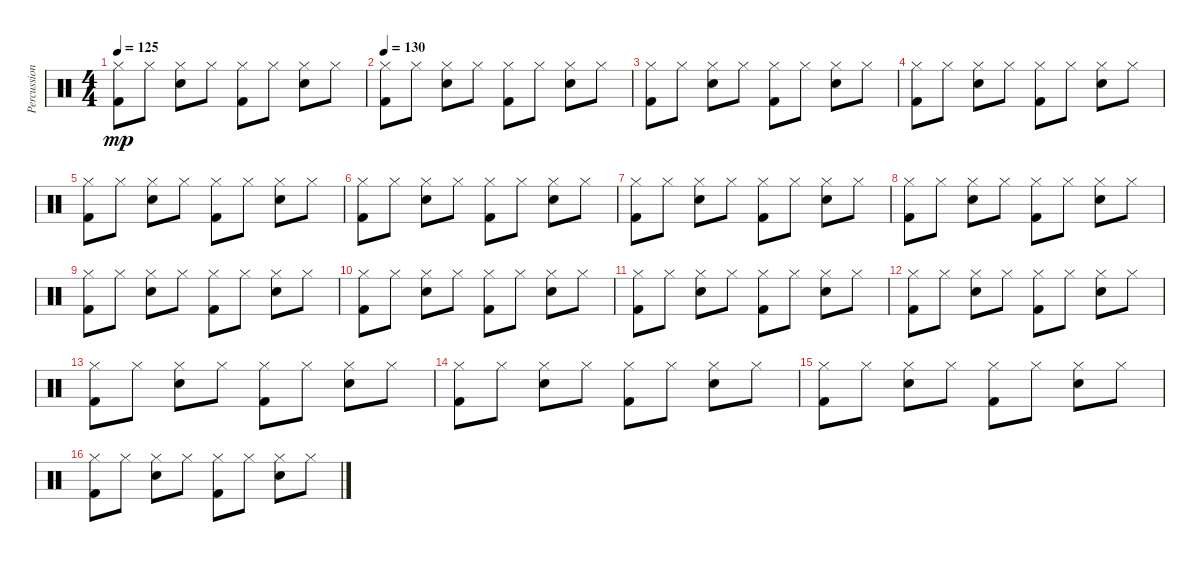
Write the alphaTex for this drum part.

\track ("Percussion" "Percussion") {instrument percussion}
\staff {score}
\articulation defaults
\ts (4 4)
\tempo 125
\clef neutral
\ks c
("Hi-Hat (closed)" "Kick (hit) 2").8{dy mp} "Hi-Hat (closed)".8 ("Hi-Hat (closed)" "Snare (hit) 2").8 "Hi-Hat (closed)".8 ("Hi-Hat (closed)" "Kick (hit) 2").8 "Hi-Hat (closed)".8 ("Hi-Hat (closed)" "Snare (hit) 2").8 "Hi-Hat (closed)".8 |
\tempo 130
("Hi-Hat (closed)" "Kick (hit) 2").8 "Hi-Hat (closed)".8 ("Hi-Hat (closed)" "Snare (hit) 2").8 "Hi-Hat (closed)".8 ("Hi-Hat (closed)" "Kick (hit) 2").8 "Hi-Hat (closed)".8 ("Hi-Hat (closed)" "Snare (hit) 2").8 "Hi-Hat (closed)".8 |
("Hi-Hat (closed)" "Kick (hit) 2").8 "Hi-Hat (closed)".8 ("Hi-Hat (closed)" "Snare (hit) 2").8 "Hi-Hat (closed)".8 ("Hi-Hat (closed)" "Kick (hit) 2").8 "Hi-Hat (closed)".8 ("Hi-Hat (closed)" "Snare (hit) 2").8 "Hi-Hat (closed)".8 |
("Hi-Hat (closed)" "Kick (hit) 2").8 "Hi-Hat (closed)".8 ("Hi-Hat (closed)" "Snare (hit) 2").8 "Hi-Hat (closed)".8 ("Hi-Hat (closed)" "Kick (hit) 2").8 "Hi-Hat (closed)".8 ("Hi-Hat (closed)" "Snare (hit) 2").8 "Hi-Hat (closed)".8 |
("Hi-Hat (closed)" "Kick (hit) 2").8 "Hi-Hat (closed)".8 ("Hi-Hat (closed)" "Snare (hit) 2").8 "Hi-Hat (closed)".8 ("Hi-Hat (closed)" "Kick (hit) 2").8 "Hi-Hat (closed)".8 ("Hi-Hat (closed)" "Snare (hit) 2").8 "Hi-Hat (closed)".8 |
("Hi-Hat (closed)" "Kick (hit) 2").8 "Hi-Hat (closed)".8 ("Hi-Hat (closed)" "Snare (hit) 2").8 "Hi-Hat (closed)".8 ("Hi-Hat (closed)" "Kick (hit) 2").8 "Hi-Hat (closed)".8 ("Hi-Hat (closed)" "Snare (hit) 2").8 "Hi-Hat (closed)".8 |
("Hi-Hat (closed)" "Kick (hit) 2").8 "Hi-Hat (closed)".8 ("Hi-Hat (closed)" "Snare (hit) 2").8 "Hi-Hat (closed)".8 ("Hi-Hat (closed)" "Kick (hit) 2").8 "Hi-Hat (closed)".8 ("Hi-Hat (closed)" "Snare (hit) 2").8 "Hi-Hat (closed)".8 |
("Hi-Hat (closed)" "Kick (hit) 2").8 "Hi-Hat (closed)".8 ("Hi-Hat (closed)" "Snare (hit) 2").8 "Hi-Hat (closed)".8 ("Hi-Hat (closed)" "Kick (hit) 2").8 "Hi-Hat (closed)".8 ("Hi-Hat (closed)" "Snare (hit) 2").8 "Hi-Hat (closed)".8 |
("Hi-Hat (closed)" "Kick (hit) 2").8 "Hi-Hat (closed)".8 ("Hi-Hat (closed)" "Snare (hit) 2").8 "Hi-Hat (closed)".8 ("Hi-Hat (closed)" "Kick (hit) 2").8 "Hi-Hat (closed)".8 ("Hi-Hat (closed)" "Snare (hit) 2").8 "Hi-Hat (closed)".8 |
("Hi-Hat (closed)" "Kick (hit) 2").8 "Hi-Hat (closed)".8 ("Hi-Hat (closed)" "Snare (hit) 2").8 "Hi-Hat (closed)".8 ("Hi-Hat (closed)" "Kick (hit) 2").8 "Hi-Hat (closed)".8 ("Hi-Hat (closed)" "Snare (hit) 2").8 "Hi-Hat (closed)".8 |
("Hi-Hat (closed)" "Kick (hit) 2").8 "Hi-Hat (closed)".8 ("Hi-Hat (closed)" "Snare (hit) 2").8 "Hi-Hat (closed)".8 ("Hi-Hat (closed)" "Kick (hit) 2").8 "Hi-Hat (closed)".8 ("Hi-Hat (closed)" "Snare (hit) 2").8 "Hi-Hat (closed)".8 |
("Hi-Hat (closed)" "Kick (hit) 2").8 "Hi-Hat (closed)".8 ("Hi-Hat (closed)" "Snare (hit) 2").8 "Hi-Hat (closed)".8 ("Hi-Hat (closed)" "Kick (hit) 2").8 "Hi-Hat (closed)".8 ("Hi-Hat (closed)" "Snare (hit) 2").8 "Hi-Hat (closed)".8 |
("Hi-Hat (closed)" "Kick (hit) 2").8 "Hi-Hat (closed)".8 ("Hi-Hat (closed)" "Snare (hit) 2").8 "Hi-Hat (closed)".8 ("Hi-Hat (closed)" "Kick (hit) 2").8 "Hi-Hat (closed)".8 ("Hi-Hat (closed)" "Snare (hit) 2").8 "Hi-Hat (closed)".8 |
("Hi-Hat (closed)" "Kick (hit) 2").8 "Hi-Hat (closed)".8 ("Hi-Hat (closed)" "Snare (hit) 2").8 "Hi-Hat (closed)".8 ("Hi-Hat (closed)" "Kick (hit) 2").8 "Hi-Hat (closed)".8 ("Hi-Hat (closed)" "Snare (hit) 2").8 "Hi-Hat (closed)".8 |
("Hi-Hat (closed)" "Kick (hit) 2").8 "Hi-Hat (closed)".8 ("Hi-Hat (closed)" "Snare (hit) 2").8 "Hi-Hat (closed)".8 ("Hi-Hat (closed)" "Kick (hit) 2").8 "Hi-Hat (closed)".8 ("Hi-Hat (closed)" "Snare (hit) 2").8 "Hi-Hat (closed)".8 |
("Hi-Hat (closed)" "Kick (hit) 2").8 "Hi-Hat (closed)".8 ("Hi-Hat (closed)" "Snare (hit) 2").8 "Hi-Hat (closed)".8 ("Hi-Hat (closed)" "Kick (hit) 2").8 "Hi-Hat (closed)".8 ("Hi-Hat (closed)" "Snare (hit) 2").8 "Hi-Hat (closed)".8
